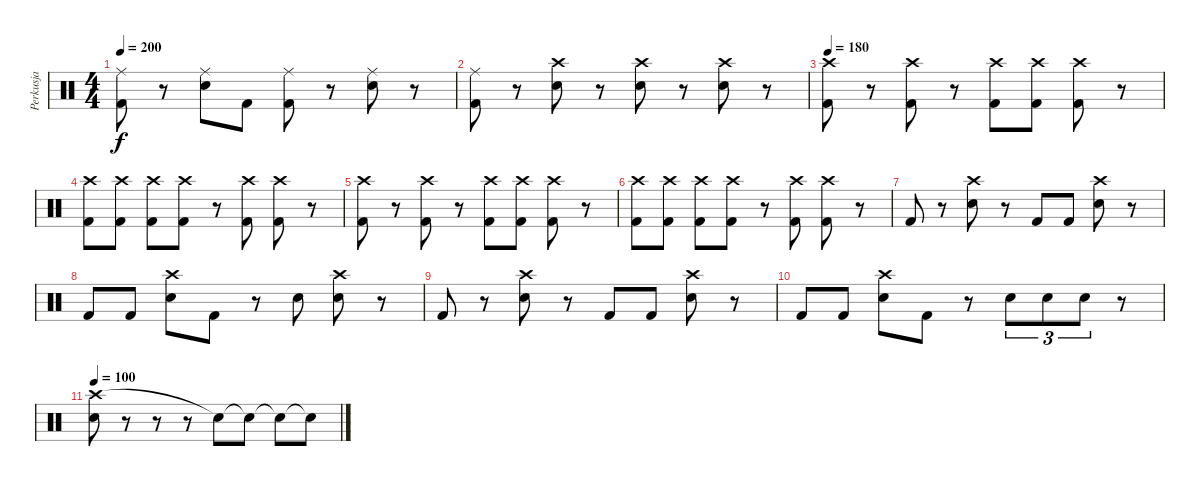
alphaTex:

\track ("Perkusja" "Perkusja") {instrument percussion}
\staff {score}
\articulation defaults
\ts (4 4)
\tempo 200
\clef neutral
\ks c
("Ride (middle)" "Kick (hit) 2").8{dy f} r.8 ("Ride (middle)" "Snare (hit) 2").8 "Kick (hit) 2".8 ("Ride (middle)" "Kick (hit) 2").8 r.8 ("Ride (middle)" "Snare (hit) 2").8 r.8 |
("Ride (middle)" "Kick (hit) 2").8 r.8 ("Crash high (hit)" "Snare (hit) 2").8 r.8 ("Crash high (hit)" "Snare (hit) 2").8 r.8 ("Crash high (hit)" "Snare (hit) 2").8 r.8 |
\tempo 180
("Crash high (hit)" "Kick (hit) 2").8 r.8 ("Crash high (hit)" "Kick (hit) 2").8 r.8 ("Crash high (hit)" "Kick (hit) 2").8 ("Crash high (hit)" "Kick (hit) 2").8 ("Crash high (hit)" "Kick (hit) 2").8 r.8 |
("Crash high (hit)" "Kick (hit) 2").8 ("Crash high (hit)" "Kick (hit) 2").8 ("Crash high (hit)" "Kick (hit) 2").8 ("Crash high (hit)" "Kick (hit) 2").8 r.8 ("Crash high (hit)" "Kick (hit) 2").8 ("Crash high (hit)" "Kick (hit) 2").8 r.8 |
("Crash high (hit)" "Kick (hit) 2").8 r.8 ("Crash high (hit)" "Kick (hit) 2").8 r.8 ("Crash high (hit)" "Kick (hit) 2").8 ("Crash high (hit)" "Kick (hit) 2").8 ("Crash high (hit)" "Kick (hit) 2").8 r.8 |
("Crash high (hit)" "Kick (hit) 2").8 ("Crash high (hit)" "Kick (hit) 2").8 ("Crash high (hit)" "Kick (hit) 2").8 ("Crash high (hit)" "Kick (hit) 2").8 r.8 ("Crash high (hit)" "Kick (hit) 2").8 ("Crash high (hit)" "Kick (hit) 2").8 r.8 |
"Kick (hit) 2".8 r.8 ("Crash high (hit)" "Snare (hit) 2").8 r.8 "Kick (hit) 2".8 "Kick (hit) 2".8 ("Crash high (hit)" "Snare (hit) 2").8 r.8 |
"Kick (hit) 2".8 "Kick (hit) 2".8 ("Crash high (hit)" "Snare (hit) 2").8 "Kick (hit) 2".8 r.8 "Snare (hit) 2".8 ("Crash high (hit)" "Snare (hit) 2").8 r.8 |
"Kick (hit) 2".8 r.8 ("Crash high (hit)" "Snare (hit) 2").8 r.8 "Kick (hit) 2".8 "Kick (hit) 2".8 ("Crash high (hit)" "Snare (hit) 2").8 r.8 |
"Kick (hit) 2".8 "Kick (hit) 2".8 ("Crash high (hit)" "Snare (hit) 2").8 "Kick (hit) 2".8 r.8 "Snare (hit) 2".8{tu (3 2)} "Snare (hit) 2".8{tu (3 2)} "Snare (hit) 2".8{tu (3 2)} r.8 |
\tempo 100
("Crash high (hit)" "Snare (hit) 2").8 r.8 r.8 r.8 "Snare (hit) 2"{t}.8 "Snare (hit) 2"{t}.8 "Snare (hit) 2"{t}.8 "Snare (hit) 2"{t}.8
